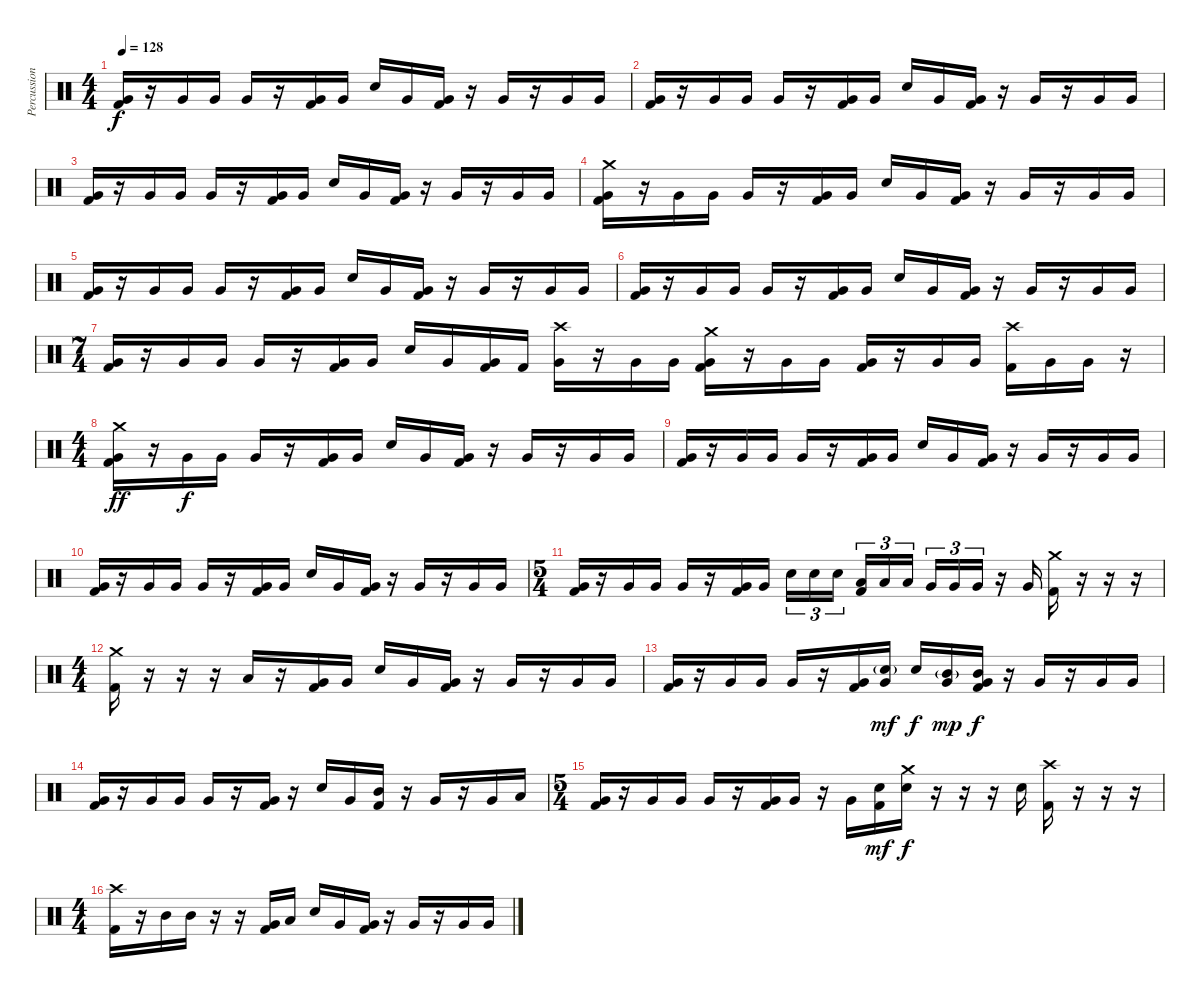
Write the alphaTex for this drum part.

\track ("Percussion" "Percussion") {instrument percussion}
\staff {score}
\articulation defaults
\ts (4 4)
\tempo 128
\clef neutral
\ks c
("Very Low Tom (hit)" "Kick (hit) 2").16{dy f} r.16 "Very Low Tom (hit)".16 "Very Low Tom (hit)".16 "Very Low Tom (hit)".16 r.16 ("Very Low Tom (hit)" "Kick (hit) 2").16 "Very Low Tom (hit)".16 "Snare (hit) 2".16 "Very Low Tom (hit)".16 ("Very Low Tom (hit)" "Kick (hit) 2").16 r.16 "Very Low Tom (hit)".16 r.16 "Very Low Tom (hit)".16 "Very Low Tom (hit)".16 |
("Very Low Tom (hit)" "Kick (hit) 2").16 r.16 "Very Low Tom (hit)".16 "Very Low Tom (hit)".16 "Very Low Tom (hit)".16 r.16 ("Very Low Tom (hit)" "Kick (hit) 2").16 "Very Low Tom (hit)".16 "Snare (hit) 2".16 "Very Low Tom (hit)".16 ("Very Low Tom (hit)" "Kick (hit) 2").16 r.16 "Very Low Tom (hit)".16 r.16 "Very Low Tom (hit)".16 "Very Low Tom (hit)".16 |
("Very Low Tom (hit)" "Kick (hit) 2").16 r.16 "Very Low Tom (hit)".16 "Very Low Tom (hit)".16 "Very Low Tom (hit)".16 r.16 ("Very Low Tom (hit)" "Kick (hit) 2").16 "Very Low Tom (hit)".16 "Snare (hit) 2".16 "Very Low Tom (hit)".16 ("Very Low Tom (hit)" "Kick (hit) 2").16 r.16 "Very Low Tom (hit)".16 r.16 "Very Low Tom (hit)".16 "Very Low Tom (hit)".16 |
("Crash medium (hit)" "Very Low Tom (hit)" "Kick (hit) 2").16 r.16 "Very Low Tom (hit)".16 "Very Low Tom (hit)".16 "Very Low Tom (hit)".16 r.16 ("Very Low Tom (hit)" "Kick (hit) 2").16 "Very Low Tom (hit)".16 "Snare (hit) 2".16 "Very Low Tom (hit)".16 ("Very Low Tom (hit)" "Kick (hit) 2").16 r.16 "Very Low Tom (hit)".16 r.16 "Very Low Tom (hit)".16 "Very Low Tom (hit)".16 |
("Very Low Tom (hit)" "Kick (hit) 2").16 r.16 "Very Low Tom (hit)".16 "Very Low Tom (hit)".16 "Very Low Tom (hit)".16 r.16 ("Very Low Tom (hit)" "Kick (hit) 2").16 "Very Low Tom (hit)".16 "Snare (hit) 2".16 "Very Low Tom (hit)".16 ("Very Low Tom (hit)" "Kick (hit) 2").16 r.16 "Very Low Tom (hit)".16 r.16 "Very Low Tom (hit)".16 "Very Low Tom (hit)".16 |
("Very Low Tom (hit)" "Kick (hit) 2").16 r.16 "Very Low Tom (hit)".16 "Very Low Tom (hit)".16 "Very Low Tom (hit)".16 r.16 ("Very Low Tom (hit)" "Kick (hit) 2").16 "Very Low Tom (hit)".16 "Snare (hit) 2".16 "Very Low Tom (hit)".16 ("Very Low Tom (hit)" "Kick (hit) 2").16 r.16 "Very Low Tom (hit)".16 r.16 "Very Low Tom (hit)".16 "Very Low Tom (hit)".16 |
\ts (7 4)
("Very Low Tom (hit)" "Kick (hit) 2").16 r.16 "Very Low Tom (hit)".16 "Very Low Tom (hit)".16 "Very Low Tom (hit)".16 r.16 ("Very Low Tom (hit)" "Kick (hit) 2").16 "Very Low Tom (hit)".16 "Snare (hit) 2".16 "Very Low Tom (hit)".16 ("Very Low Tom (hit)" "Kick (hit) 2").16 "Kick (hit) 2".16 ("Crash high (hit)" "Very Low Tom (hit)").16 r.16 "Very Low Tom (hit)".16 "Very Low Tom (hit)".16 ("Crash medium (hit)" "Very Low Tom (hit)" "Kick (hit) 2").16 r.16 "Very Low Tom (hit)".16 "Very Low Tom (hit)".16 ("Very Low Tom (hit)" "Kick (hit) 2").16 r.16 "Very Low Tom (hit)".16 "Very Low Tom (hit)".16 ("Crash high (hit)" "Kick (hit) 2").16 "Very Low Tom (hit)".16 "Very Low Tom (hit)".16 r.16 |
\ts (4 4)
("Crash medium (hit)" "Very Low Tom (hit)" "Kick (hit) 2").16{dy ff} r.16 "Very Low Tom (hit)".16{dy f} "Very Low Tom (hit)".16 "Very Low Tom (hit)".16 r.16 ("Very Low Tom (hit)" "Kick (hit) 2").16 "Very Low Tom (hit)".16 "Snare (hit) 2".16 "Very Low Tom (hit)".16 ("Very Low Tom (hit)" "Kick (hit) 2").16 r.16 "Very Low Tom (hit)".16 r.16 "Very Low Tom (hit)".16 "Very Low Tom (hit)".16 |
("Very Low Tom (hit)" "Kick (hit) 2").16 r.16 "Very Low Tom (hit)".16 "Very Low Tom (hit)".16 "Very Low Tom (hit)".16 r.16 ("Very Low Tom (hit)" "Kick (hit) 2").16 "Very Low Tom (hit)".16 "Snare (hit) 2".16 "Very Low Tom (hit)".16 ("Very Low Tom (hit)" "Kick (hit) 2").16 r.16 "Very Low Tom (hit)".16 r.16 "Very Low Tom (hit)".16 "Very Low Tom (hit)".16 |
("Very Low Tom (hit)" "Kick (hit) 2").16 r.16 "Very Low Tom (hit)".16 "Very Low Tom (hit)".16 "Very Low Tom (hit)".16 r.16 ("Very Low Tom (hit)" "Kick (hit) 2").16 "Very Low Tom (hit)".16 "Snare (hit) 2".16 "Very Low Tom (hit)".16 ("Very Low Tom (hit)" "Kick (hit) 2").16 r.16 "Very Low Tom (hit)".16 r.16 "Very Low Tom (hit)".16 "Very Low Tom (hit)".16 |
\ts (5 4)
("Very Low Tom (hit)" "Kick (hit) 2").16 r.16 "Very Low Tom (hit)".16 "Very Low Tom (hit)".16 "Very Low Tom (hit)".16 r.16 ("Very Low Tom (hit)" "Kick (hit) 2").16 "Very Low Tom (hit)".16 "Snare (hit) 2".16{tu (3 2)} "Snare (hit) 2".16{tu (3 2)} "Snare (hit) 2".16{tu (3 2) beam splitsecondary} ("Low Tom (hit)" "Kick (hit) 2").16{tu (3 2)} "Low Tom (hit)".16{tu (3 2)} "Low Tom (hit)".16{tu (3 2)} "Very Low Tom (hit)".16{tu (3 2)} "Very Low Tom (hit)".16{tu (3 2)} "Very Low Tom (hit)".16{tu (3 2)} r.16 "Very Low Tom (hit)".16 ("Crash medium (hit)" "Kick (hit) 2").16 r.16 r.16 r.16 |
\ts (4 4)
("Crash medium (hit)" "Kick (hit) 2").16 r.16 r.16 r.16 "Low Tom (hit)".16 r.16 ("Very Low Tom (hit)" "Kick (hit) 2").16 "Very Low Tom (hit)".16 "Snare (hit) 2".16 "Very Low Tom (hit)".16 ("Very Low Tom (hit)" "Kick (hit) 2").16 r.16 "Very Low Tom (hit)".16 r.16 "Very Low Tom (hit)".16 "Very Low Tom (hit)".16 |
("Very Low Tom (hit)" "Kick (hit) 2").16 r.16 "Very Low Tom (hit)".16 "Very Low Tom (hit)".16 "Very Low Tom (hit)".16 r.16 ("Very Low Tom (hit)" "Kick (hit) 2").16 ("Very Low Tom (hit)" "Snare (hit) 2"{g}).16{dy mf} "Snare (hit) 2".16{dy f} ("Mid Tom (hit)"{g} "Very Low Tom (hit)").16{dy mp} ("Mid Tom (hit)" "Very Low Tom (hit)" "Kick (hit) 2").16{dy f} r.16 "Very Low Tom (hit)".16 r.16 "Very Low Tom (hit)".16 "Very Low Tom (hit)".16 |
("Very Low Tom (hit)" "Kick (hit) 2").16 r.16 "Very Low Tom (hit)".16 "Very Low Tom (hit)".16 "Very Low Tom (hit)".16 r.16 ("Very Low Tom (hit)" "Kick (hit) 2").16 r.16 "Snare (hit) 2".16 "Very Low Tom (hit)".16 ("Mid Tom (hit)" "Kick (hit) 2").16 r.16 "Very Low Tom (hit)".16 r.16 "Very Low Tom (hit)".16 "Low Tom (hit)".16 |
\ts (5 4)
("Very Low Tom (hit)" "Kick (hit) 2").16 r.16 "Very Low Tom (hit)".16 "Very Low Tom (hit)".16 "Very Low Tom (hit)".16 r.16 ("Very Low Tom (hit)" "Kick (hit) 2").16 "Very Low Tom (hit)".16 r.16 "Very Low Tom (hit)".16 ("Snare (hit) 2" "Kick (hit) 2").16{dy mf} ("Crash medium (hit)" "Snare (hit) 2").16{dy f} r.16 r.16 r.16 "Snare (hit) 2".16 ("Crash high (hit)" "Kick (hit) 2").16 r.16 r.16 r.16 |
\ts (4 4)
("Crash high (hit)" "Kick (hit) 2").16 r.16 "Mid Tom (hit)".16 "Mid Tom (hit)".16 r.16 r.16 ("Very Low Tom (hit)" "Kick (hit) 2").16 "Low Tom (hit)".16 "Snare (hit) 2".16 "Very Low Tom (hit)".16 ("Very Low Tom (hit)" "Kick (hit) 2").16 r.16 "Very Low Tom (hit)".16 r.16 "Very Low Tom (hit)".16 "Very Low Tom (hit)".16
